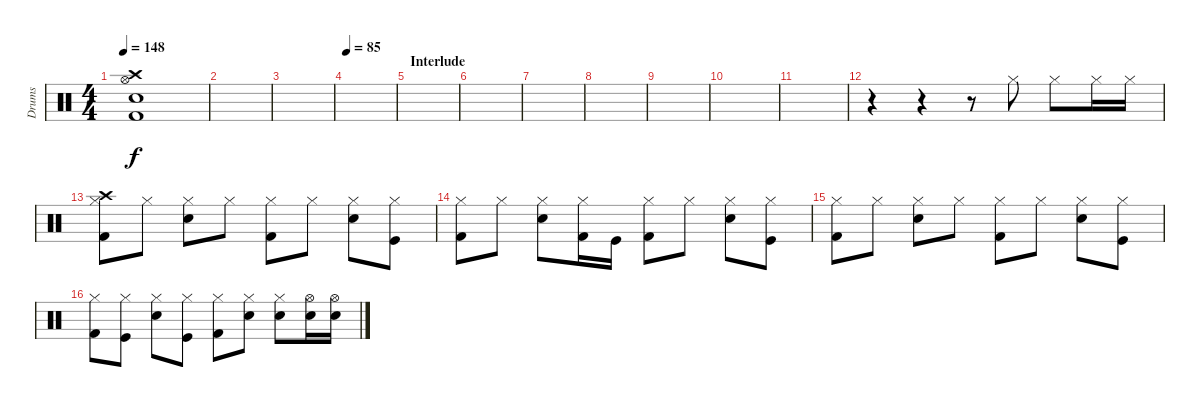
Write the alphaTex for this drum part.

\track ("Drums" "Drums") {instrument percussion}
\staff {score}
\articulation defaults
\ts (4 4)
\tempo 148
\clef neutral
\ks c
("Hi-Hat (open)" "Crash high (hit)" "Snare (hit) 2" "Kick (hit) 2").1{dy f} |
|
|
\tempo 85
|
\section ("" "Interlude")
|
|
|
|
|
|
|
r.4 r.4 r.8 "Hi-Hat (closed)".8 "Hi-Hat (closed)".8 "Hi-Hat (closed)".16 "Hi-Hat (closed)".16 |
("Hi-Hat (closed)" "Crash high (hit)" "Kick (hit) 2").8 "Hi-Hat (closed)".8 ("Hi-Hat (closed)" "Snare (hit) 2").8 "Hi-Hat (closed)".8 ("Hi-Hat (closed)" "Kick (hit) 2").8 "Hi-Hat (closed)".8 ("Hi-Hat (closed)" "Snare (hit) 2").8 ("Hi-Hat (closed)" "Kick (hit)").8 |
("Hi-Hat (closed)" "Kick (hit) 2").8 "Hi-Hat (closed)".8 ("Hi-Hat (closed)" "Snare (hit) 2").8 ("Hi-Hat (closed)" "Kick (hit) 2").16 "Kick (hit)".16 ("Hi-Hat (closed)" "Kick (hit) 2").8 "Hi-Hat (closed)".8 ("Hi-Hat (closed)" "Snare (hit) 2").8 ("Hi-Hat (closed)" "Kick (hit)").8 |
("Hi-Hat (closed)" "Kick (hit) 2").8 "Hi-Hat (closed)".8 ("Hi-Hat (closed)" "Snare (hit) 2").8 "Hi-Hat (closed)".8 ("Hi-Hat (closed)" "Kick (hit) 2").8 "Hi-Hat (closed)".8 ("Hi-Hat (closed)" "Snare (hit) 2").8 ("Hi-Hat (closed)" "Kick (hit)").8 |
("Hi-Hat (closed)" "Kick (hit) 2").8 ("Hi-Hat (closed)" "Kick (hit)").8 ("Hi-Hat (closed)" "Snare (hit) 2").8 ("Hi-Hat (closed)" "Kick (hit)").8 ("Hi-Hat (closed)" "Kick (hit) 2").8 ("Hi-Hat (closed)" "Snare (hit) 2").8 ("Hi-Hat (closed)" "Snare (hit) 2").8 ("Hi-Hat (open)" "Snare (hit) 2").16 ("Hi-Hat (open)" "Snare (hit) 2").16
